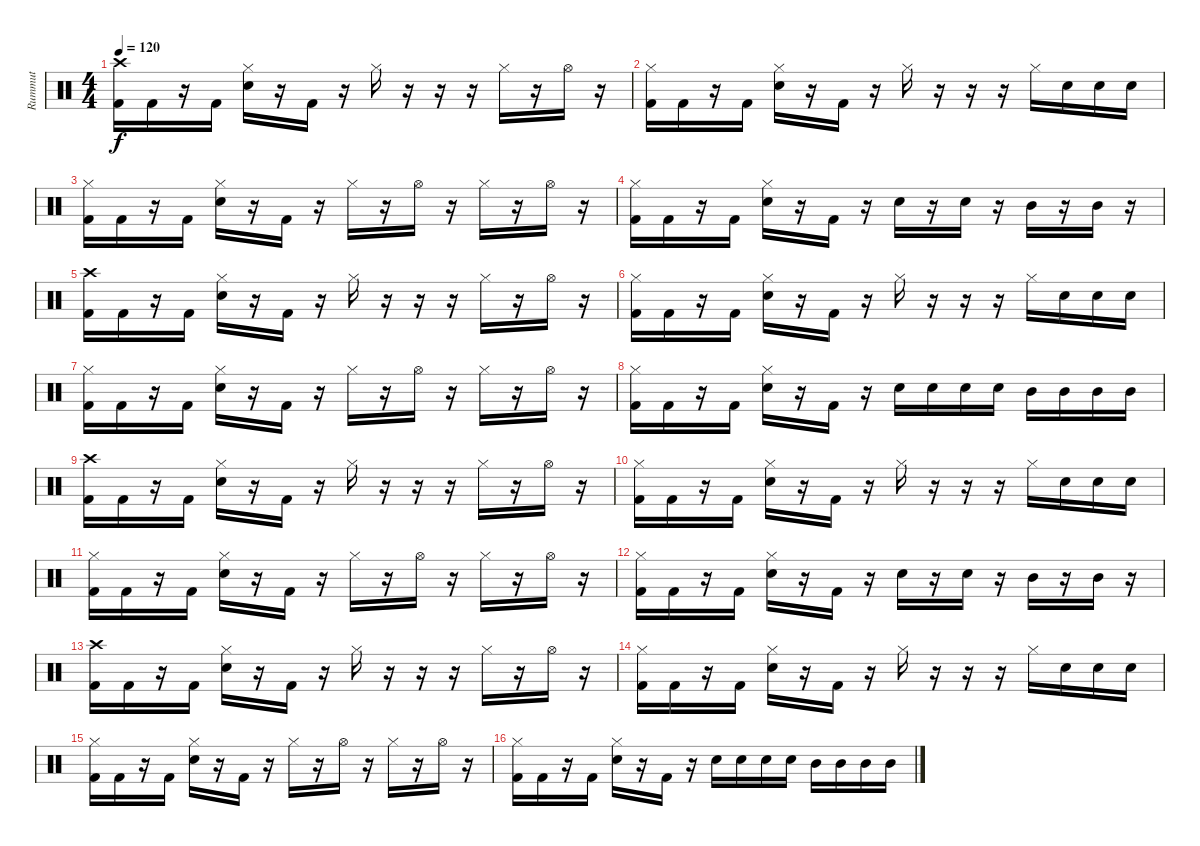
\track ("Rummut" "Rummut") {instrument percussion}
\staff {score}
\articulation defaults
\ts (4 4)
\tempo 120
\clef neutral
\ks c
("Crash high (hit)" "Kick (hit) 2").16{dy f} "Kick (hit) 2".16 r.16 "Kick (hit) 2".16 ("Hi-Hat (closed)" "Snare (hit) 2").16 r.16 "Kick (hit) 2".16 r.16 "Hi-Hat (closed)".16 r.16 r.16 r.16 "Hi-Hat (closed)".16 r.16 "Hi-Hat (open)".16 r.16 |
("Hi-Hat (closed)" "Kick (hit) 2").16 "Kick (hit) 2".16 r.16 "Kick (hit) 2".16 ("Hi-Hat (closed)" "Snare (hit) 2").16 r.16 "Kick (hit) 2".16 r.16 "Hi-Hat (closed)".16 r.16 r.16 r.16 "Hi-Hat (closed)".16 "Snare (hit) 2".16 "Snare (hit) 2".16 "Snare (hit) 2".16 |
("Hi-Hat (closed)" "Kick (hit) 2").16 "Kick (hit) 2".16 r.16 "Kick (hit) 2".16 ("Hi-Hat (closed)" "Snare (hit) 2").16 r.16 "Kick (hit) 2".16 r.16 "Hi-Hat (closed)".16 r.16 "Hi-Hat (open)".16 r.16 "Hi-Hat (closed)".16 r.16 "Hi-Hat (open)".16 r.16 |
("Hi-Hat (closed)" "Kick (hit) 2").16 "Kick (hit) 2".16 r.16 "Kick (hit) 2".16 ("Hi-Hat (closed)" "Snare (hit) 2").16 r.16 "Kick (hit) 2".16 r.16 "Snare (hit) 2".16 r.16 "Snare (hit) 2".16 r.16 "Mid Tom (hit)".16 r.16 "Mid Tom (hit)".16 r.16 |
("Crash high (hit)" "Kick (hit) 2").16 "Kick (hit) 2".16 r.16 "Kick (hit) 2".16 ("Hi-Hat (closed)" "Snare (hit) 2").16 r.16 "Kick (hit) 2".16 r.16 "Hi-Hat (closed)".16 r.16 r.16 r.16 "Hi-Hat (closed)".16 r.16 "Hi-Hat (open)".16 r.16 |
("Hi-Hat (closed)" "Kick (hit) 2").16 "Kick (hit) 2".16 r.16 "Kick (hit) 2".16 ("Hi-Hat (closed)" "Snare (hit) 2").16 r.16 "Kick (hit) 2".16 r.16 "Hi-Hat (closed)".16 r.16 r.16 r.16 "Hi-Hat (closed)".16 "Snare (hit) 2".16 "Snare (hit) 2".16 "Snare (hit) 2".16 |
("Hi-Hat (closed)" "Kick (hit) 2").16 "Kick (hit) 2".16 r.16 "Kick (hit) 2".16 ("Hi-Hat (closed)" "Snare (hit) 2").16 r.16 "Kick (hit) 2".16 r.16 "Hi-Hat (closed)".16 r.16 "Hi-Hat (open)".16 r.16 "Hi-Hat (closed)".16 r.16 "Hi-Hat (open)".16 r.16 |
("Hi-Hat (closed)" "Kick (hit) 2").16 "Kick (hit) 2".16 r.16 "Kick (hit) 2".16 ("Hi-Hat (closed)" "Snare (hit) 2").16 r.16 "Kick (hit) 2".16 r.16 "Snare (hit) 2".16 "Snare (hit) 2".16 "Snare (hit) 2".16 "Snare (hit) 2".16 "Mid Tom (hit)".16 "Mid Tom (hit)".16 "Mid Tom (hit)".16 "Mid Tom (hit)".16 |
("Crash high (hit)" "Kick (hit) 2").16 "Kick (hit) 2".16 r.16 "Kick (hit) 2".16 ("Hi-Hat (closed)" "Snare (hit) 2").16 r.16 "Kick (hit) 2".16 r.16 "Hi-Hat (closed)".16 r.16 r.16 r.16 "Hi-Hat (closed)".16 r.16 "Hi-Hat (open)".16 r.16 |
("Hi-Hat (closed)" "Kick (hit) 2").16 "Kick (hit) 2".16 r.16 "Kick (hit) 2".16 ("Hi-Hat (closed)" "Snare (hit) 2").16 r.16 "Kick (hit) 2".16 r.16 "Hi-Hat (closed)".16 r.16 r.16 r.16 "Hi-Hat (closed)".16 "Snare (hit) 2".16 "Snare (hit) 2".16 "Snare (hit) 2".16 |
("Hi-Hat (closed)" "Kick (hit) 2").16 "Kick (hit) 2".16 r.16 "Kick (hit) 2".16 ("Hi-Hat (closed)" "Snare (hit) 2").16 r.16 "Kick (hit) 2".16 r.16 "Hi-Hat (closed)".16 r.16 "Hi-Hat (open)".16 r.16 "Hi-Hat (closed)".16 r.16 "Hi-Hat (open)".16 r.16 |
("Hi-Hat (closed)" "Kick (hit) 2").16 "Kick (hit) 2".16 r.16 "Kick (hit) 2".16 ("Hi-Hat (closed)" "Snare (hit) 2").16 r.16 "Kick (hit) 2".16 r.16 "Snare (hit) 2".16 r.16 "Snare (hit) 2".16 r.16 "Mid Tom (hit)".16 r.16 "Mid Tom (hit)".16 r.16 |
("Crash high (hit)" "Kick (hit) 2").16 "Kick (hit) 2".16 r.16 "Kick (hit) 2".16 ("Hi-Hat (closed)" "Snare (hit) 2").16 r.16 "Kick (hit) 2".16 r.16 "Hi-Hat (closed)".16 r.16 r.16 r.16 "Hi-Hat (closed)".16 r.16 "Hi-Hat (open)".16 r.16 |
("Hi-Hat (closed)" "Kick (hit) 2").16 "Kick (hit) 2".16 r.16 "Kick (hit) 2".16 ("Hi-Hat (closed)" "Snare (hit) 2").16 r.16 "Kick (hit) 2".16 r.16 "Hi-Hat (closed)".16 r.16 r.16 r.16 "Hi-Hat (closed)".16 "Snare (hit) 2".16 "Snare (hit) 2".16 "Snare (hit) 2".16 |
("Hi-Hat (closed)" "Kick (hit) 2").16 "Kick (hit) 2".16 r.16 "Kick (hit) 2".16 ("Hi-Hat (closed)" "Snare (hit) 2").16 r.16 "Kick (hit) 2".16 r.16 "Hi-Hat (closed)".16 r.16 "Hi-Hat (open)".16 r.16 "Hi-Hat (closed)".16 r.16 "Hi-Hat (open)".16 r.16 |
("Hi-Hat (closed)" "Kick (hit) 2").16 "Kick (hit) 2".16 r.16 "Kick (hit) 2".16 ("Hi-Hat (closed)" "Snare (hit) 2").16 r.16 "Kick (hit) 2".16 r.16 "Snare (hit) 2".16 "Snare (hit) 2".16 "Snare (hit) 2".16 "Snare (hit) 2".16 "Mid Tom (hit)".16 "Mid Tom (hit)".16 "Mid Tom (hit)".16 "Mid Tom (hit)".16
